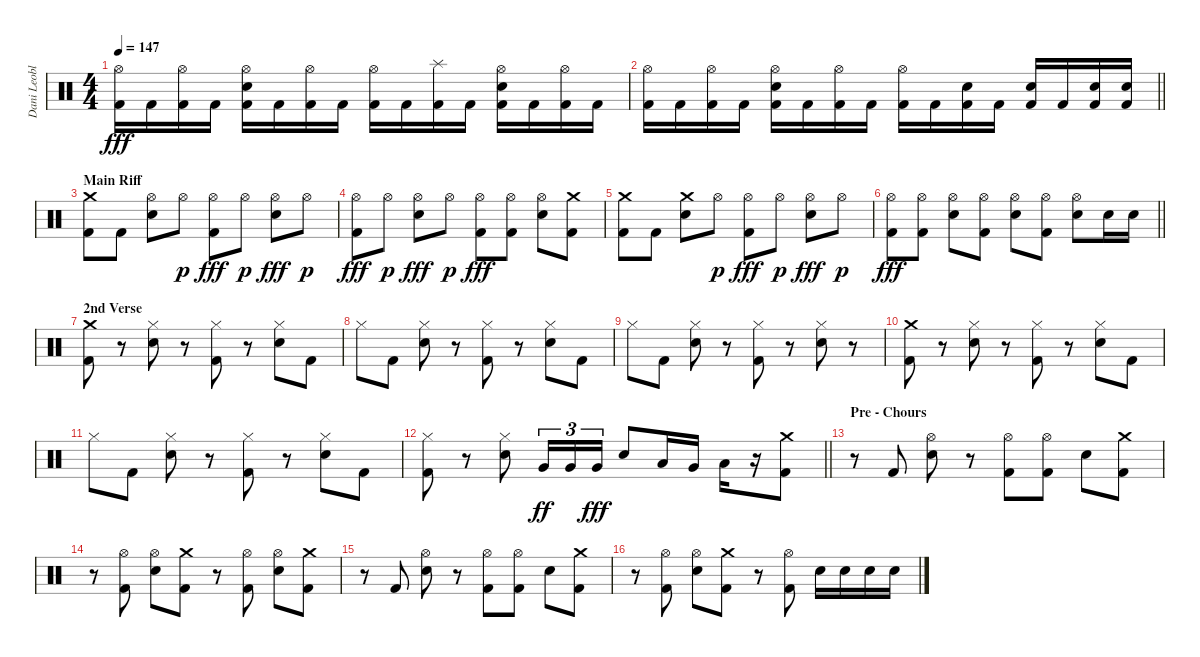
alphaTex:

\track ("Dani Leoble" "Dani Leobl") {instrument percussion}
\staff {score}
\articulation defaults
\ts (4 4)
\tempo 147
\clef neutral
\ks c
("Hi-Hat (open)" "Kick (hit) 2").16{dy fff} "Kick (hit) 2".16 ("Hi-Hat (open)" "Kick (hit) 2").16 "Kick (hit) 2".16 ("Hi-Hat (open)" "Electric Snare (hit)" "Kick (hit) 2").16 "Kick (hit) 2".16 ("Hi-Hat (open)" "Kick (hit) 2").16 "Kick (hit) 2".16 ("Hi-Hat (open)" "Kick (hit) 2").16 "Kick (hit) 2".16 ("Splash (hit)" "Kick (hit) 2").16 "Kick (hit) 2".16 ("Hi-Hat (open)" "Electric Snare (hit)" "Kick (hit) 2").16 "Kick (hit) 2".16 ("Hi-Hat (open)" "Kick (hit) 2").16 "Kick (hit) 2".16 |
\barLineRight lightlight
("Hi-Hat (open)" "Kick (hit) 2").16 "Kick (hit) 2".16 ("Hi-Hat (open)" "Kick (hit) 2").16 "Kick (hit) 2".16 ("Hi-Hat (open)" "Electric Snare (hit)" "Kick (hit) 2").16 "Kick (hit) 2".16 ("Hi-Hat (open)" "Kick (hit) 2").16 "Kick (hit) 2".16 ("Hi-Hat (open)" "Kick (hit) 2").16 "Kick (hit) 2".16 ("Electric Snare (hit)" "Kick (hit) 2").16 "Kick (hit) 2".16 ("Electric Snare (hit)" "Kick (hit) 2").16 "Kick (hit) 2".16 ("Electric Snare (hit)" "Kick (hit) 2").16 ("Electric Snare (hit)" "Kick (hit) 2").16 |
\section ("" "Main Riff")
("Crash medium (hit)" "Kick (hit) 2").8 "Kick (hit) 2".8 ("Hi-Hat (open)" "Electric Snare (hit)").8 "Hi-Hat (open)".8{dy p} ("Hi-Hat (open)" "Kick (hit) 2").8{dy fff} "Hi-Hat (open)".8{dy p} ("Hi-Hat (open)" "Electric Snare (hit)").8{dy fff} "Hi-Hat (open)".8{dy p} |
("Hi-Hat (open)" "Kick (hit) 2").8{dy fff} "Hi-Hat (open)".8{dy p} ("Hi-Hat (open)" "Electric Snare (hit)").8{dy fff} "Hi-Hat (open)".8{dy p} ("Hi-Hat (open)" "Kick (hit) 2").8{dy fff} ("Hi-Hat (open)" "Kick (hit) 2").8 ("Hi-Hat (open)" "Electric Snare (hit)").8 ("Crash medium (hit)" "Kick (hit) 2").8 |
("Crash medium (hit)" "Kick (hit) 2").8 "Kick (hit) 2".8 ("Crash medium (hit)" "Electric Snare (hit)").8 "Hi-Hat (open)".8{dy p} ("Hi-Hat (open)" "Kick (hit) 2").8{dy fff} "Hi-Hat (open)".8{dy p} ("Hi-Hat (open)" "Electric Snare (hit)").8{dy fff} "Hi-Hat (open)".8{dy p} |
\barLineRight lightlight
("Hi-Hat (open)" "Kick (hit) 2").8{dy fff} ("Hi-Hat (open)" "Kick (hit) 2").8 ("Hi-Hat (open)" "Electric Snare (hit)").8 ("Hi-Hat (open)" "Kick (hit) 2").8 ("Hi-Hat (open)" "Electric Snare (hit)").8 ("Hi-Hat (open)" "Kick (hit) 2").8 ("Hi-Hat (open)" "Electric Snare (hit)").8 "Electric Snare (hit)".16 "Electric Snare (hit)".16 |
\section ("" "2nd Verse")
("Crash medium (hit)" "Kick (hit) 2").8 r.8 ("Hi-Hat (closed)" "Electric Snare (hit)").8 r.8 ("Hi-Hat (closed)" "Kick (hit) 2").8 r.8 ("Hi-Hat (closed)" "Electric Snare (hit)").8 "Kick (hit) 2".8 |
"Hi-Hat (closed)".8 "Kick (hit) 2".8 ("Hi-Hat (closed)" "Electric Snare (hit)").8 r.8 ("Hi-Hat (closed)" "Kick (hit) 2").8 r.8 ("Hi-Hat (closed)" "Electric Snare (hit)").8 "Kick (hit) 2".8 |
"Hi-Hat (closed)".8 "Kick (hit) 2".8 ("Hi-Hat (closed)" "Electric Snare (hit)").8 r.8 ("Hi-Hat (closed)" "Kick (hit) 2").8 r.8 ("Hi-Hat (closed)" "Electric Snare (hit)").8 r.8 |
("Crash medium (hit)" "Kick (hit) 2").8 r.8 ("Hi-Hat (closed)" "Electric Snare (hit)").8 r.8 ("Hi-Hat (closed)" "Kick (hit) 2").8 r.8 ("Hi-Hat (closed)" "Electric Snare (hit)").8 "Kick (hit) 2".8 |
"Hi-Hat (closed)".8 "Kick (hit) 2".8 ("Hi-Hat (closed)" "Electric Snare (hit)").8 r.8 ("Hi-Hat (closed)" "Kick (hit) 2").8 r.8 ("Hi-Hat (closed)" "Electric Snare (hit)").8 "Kick (hit) 2".8 |
\barLineRight lightlight
("Hi-Hat (closed)" "Kick (hit) 2").8 r.8 ("Hi-Hat (closed)" "Electric Snare (hit)").8 "Very Low Tom (hit)".16{tu (3 2) dy ff} "Very Low Tom (hit)".16{tu (3 2)} "Very Low Tom (hit)".16{tu (3 2) dy fff} "Electric Snare (hit)".8 "Low Tom (hit)".16 "Very Low Tom (hit)".16 "Low Floor Tom (hit)".16 r.16 ("Crash medium (hit)" "Kick (hit) 2").8 |
\section ("" "Pre - Chours")
r.8 "Kick (hit) 2".8 ("Hi-Hat (open)" "Electric Snare (hit)").8 r.8 ("Hi-Hat (open)" "Kick (hit) 2").8 ("Hi-Hat (open)" "Kick (hit) 2").8 "Electric Snare (hit)".8 ("Crash medium (hit)" "Kick (hit) 2").8 |
r.8 ("Hi-Hat (open)" "Kick (hit) 2").8 ("Hi-Hat (open)" "Electric Snare (hit)").8 ("Crash medium (hit)" "Kick (hit) 2").8 r.8 ("Hi-Hat (open)" "Kick (hit) 2").8 ("Hi-Hat (open)" "Electric Snare (hit)").8 ("Crash medium (hit)" "Kick (hit) 2").8 |
r.8 "Kick (hit) 2".8 ("Hi-Hat (open)" "Electric Snare (hit)").8 r.8 ("Hi-Hat (open)" "Kick (hit) 2").8 ("Hi-Hat (open)" "Kick (hit) 2").8 "Electric Snare (hit)".8 ("Crash medium (hit)" "Kick (hit) 2").8 |
r.8 ("Hi-Hat (open)" "Kick (hit) 2").8 ("Hi-Hat (open)" "Electric Snare (hit)").8 ("Crash medium (hit)" "Kick (hit) 2").8 r.8 ("Hi-Hat (open)" "Kick (hit) 2").8 "Electric Snare (hit)".16 "Electric Snare (hit)".16 "Electric Snare (hit)".16 "Electric Snare (hit)".16
